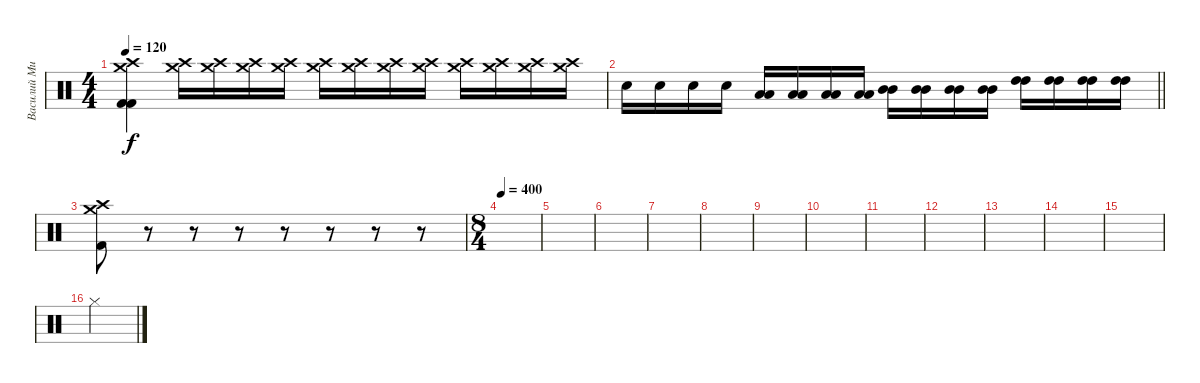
\track ("Василий Михалыч-ударные" "Василий Ми") {instrument percussion}
\staff {score}
\articulation defaults
\ts (4 4)
\tempo 120
\clef neutral
\ks c
("Kick (hit) 2" "Kick (hit) 2" "Crash high (hit)" "Crash medium (hit)").4{dy f} ("Crash high (hit)" "Crash medium (hit)").16 ("Crash high (hit)" "Crash medium (hit)").16 ("Crash high (hit)" "Crash medium (hit)").16 ("Crash high (hit)" "Crash medium (hit)").16 ("Crash high (hit)" "Crash medium (hit)").16 ("Crash high (hit)" "Crash medium (hit)").16 ("Crash high (hit)" "Crash medium (hit)").16 ("Crash high (hit)" "Crash medium (hit)").16 ("Crash high (hit)" "Crash medium (hit)").16 ("Crash high (hit)" "Crash medium (hit)").16 ("Crash high (hit)" "Crash medium (hit)").16 ("Crash high (hit)" "Crash medium (hit)").16 |
\barLineRight lightlight "Electric Snare (hit)".16 "Electric Snare (hit)".16 "Electric Snare (hit)".16 "Electric Snare (hit)".16
("Low Tom (hit)" "Low Tom (hit)").16 ("Low Tom (hit)" "Low Tom (hit)").16 ("Low Tom (hit)" "Low Tom (hit)").16 ("Low Tom (hit)" "Low Tom (hit)").16 ("Mid Tom (hit)" "Mid Tom (hit)").16 ("Mid Tom (hit)" "Mid Tom (hit)").16 ("Mid Tom (hit)" "Mid Tom (hit)").16 ("Mid Tom (hit)" "Mid Tom (hit)").16 ("High Tom (hit)" "High Tom (hit)").16 ("High Tom (hit)" "High Tom (hit)").16 ("High Tom (hit)" "High Tom (hit)").16 ("High Tom (hit)" "High Tom (hit)").16 |
("Kick (hit) 2" "Crash high (hit)" "Crash medium (hit)").8 r.8 r.8 r.8 r.8 r.8 r.8 r.8 |
\ts (8 4)
\tempo 400
|
|
|
|
|
|
|
|
|
|
|
|
"Hi-Hat (closed)".2
